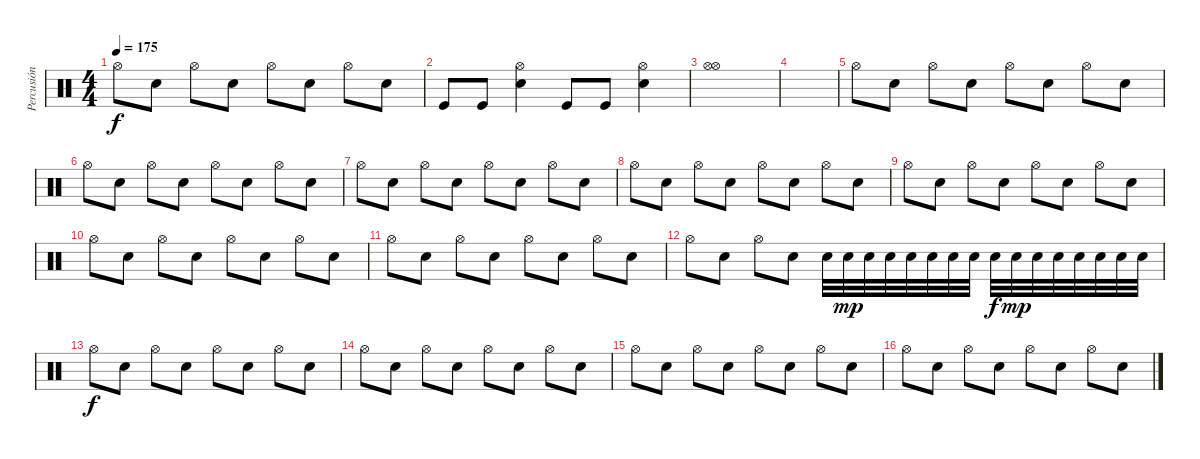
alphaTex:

\track ("Percusión" "Percusión") {instrument percussion}
\staff {score}
\articulation defaults
\ts (4 4)
\tempo 175
\clef neutral
\ks c "Hi-Hat (open)".8{dy f} "Snare (hit) 2".8 "Hi-Hat (open)".8 "Snare (hit) 2".8 "Hi-Hat (open)".8 "Snare (hit) 2".8 "Hi-Hat (open)".8 "Snare (hit) 2".8
|
"Kick (hit)".8 "Kick (hit)".8 ("Snare (hit) 2" "Hi-Hat (open)").4 "Kick (hit)".8 "Kick (hit)".8 ("Snare (hit) 2" "Hi-Hat (open)").4 |
("Hi-Hat (open)" "Hi-Hat (open)").1 |
|
"Hi-Hat (open)".8 "Snare (hit) 2".8 "Hi-Hat (open)".8 "Snare (hit) 2".8 "Hi-Hat (open)".8 "Snare (hit) 2".8 "Hi-Hat (open)".8 "Snare (hit) 2".8 |
"Hi-Hat (open)".8 "Snare (hit) 2".8 "Hi-Hat (open)".8 "Snare (hit) 2".8 "Hi-Hat (open)".8 "Snare (hit) 2".8 "Hi-Hat (open)".8 "Snare (hit) 2".8 |
"Hi-Hat (open)".8 "Snare (hit) 2".8 "Hi-Hat (open)".8 "Snare (hit) 2".8 "Hi-Hat (open)".8 "Snare (hit) 2".8 "Hi-Hat (open)".8 "Snare (hit) 2".8 |
"Hi-Hat (open)".8 "Snare (hit) 2".8 "Hi-Hat (open)".8 "Snare (hit) 2".8 "Hi-Hat (open)".8 "Snare (hit) 2".8 "Hi-Hat (open)".8 "Snare (hit) 2".8 |
"Hi-Hat (open)".8 "Snare (hit) 2".8 "Hi-Hat (open)".8 "Snare (hit) 2".8 "Hi-Hat (open)".8 "Snare (hit) 2".8 "Hi-Hat (open)".8 "Snare (hit) 2".8 |
"Hi-Hat (open)".8 "Snare (hit) 2".8 "Hi-Hat (open)".8 "Snare (hit) 2".8 "Hi-Hat (open)".8 "Snare (hit) 2".8 "Hi-Hat (open)".8 "Snare (hit) 2".8 |
"Hi-Hat (open)".8 "Snare (hit) 2".8 "Hi-Hat (open)".8 "Snare (hit) 2".8 "Hi-Hat (open)".8 "Snare (hit) 2".8 "Hi-Hat (open)".8 "Snare (hit) 2".8 |
"Hi-Hat (open)".8 "Snare (hit) 2".8 "Hi-Hat (open)".8 "Snare (hit) 2".8 "Snare (hit) 2".32 "Snare (hit) 2".32{dy mp} "Snare (hit) 2".32 "Snare (hit) 2".32 "Snare (hit) 2".32 "Snare (hit) 2".32 "Snare (hit) 2".32 "Snare (hit) 2".32 "Snare (hit) 2".32{dy f} "Snare (hit) 2".32{dy mp} "Snare (hit) 2".32 "Snare (hit) 2".32 "Snare (hit) 2".32 "Snare (hit) 2".32 "Snare (hit) 2".32 "Snare (hit) 2".32 |
"Hi-Hat (open)".8{dy f} "Snare (hit) 2".8 "Hi-Hat (open)".8 "Snare (hit) 2".8 "Hi-Hat (open)".8 "Snare (hit) 2".8 "Hi-Hat (open)".8 "Snare (hit) 2".8 |
"Hi-Hat (open)".8 "Snare (hit) 2".8 "Hi-Hat (open)".8 "Snare (hit) 2".8 "Hi-Hat (open)".8 "Snare (hit) 2".8 "Hi-Hat (open)".8 "Snare (hit) 2".8 |
"Hi-Hat (open)".8 "Snare (hit) 2".8 "Hi-Hat (open)".8 "Snare (hit) 2".8 "Hi-Hat (open)".8 "Snare (hit) 2".8 "Hi-Hat (open)".8 "Snare (hit) 2".8 |
"Hi-Hat (open)".8 "Snare (hit) 2".8 "Hi-Hat (open)".8 "Snare (hit) 2".8 "Hi-Hat (open)".8 "Snare (hit) 2".8 "Hi-Hat (open)".8 "Snare (hit) 2".8
